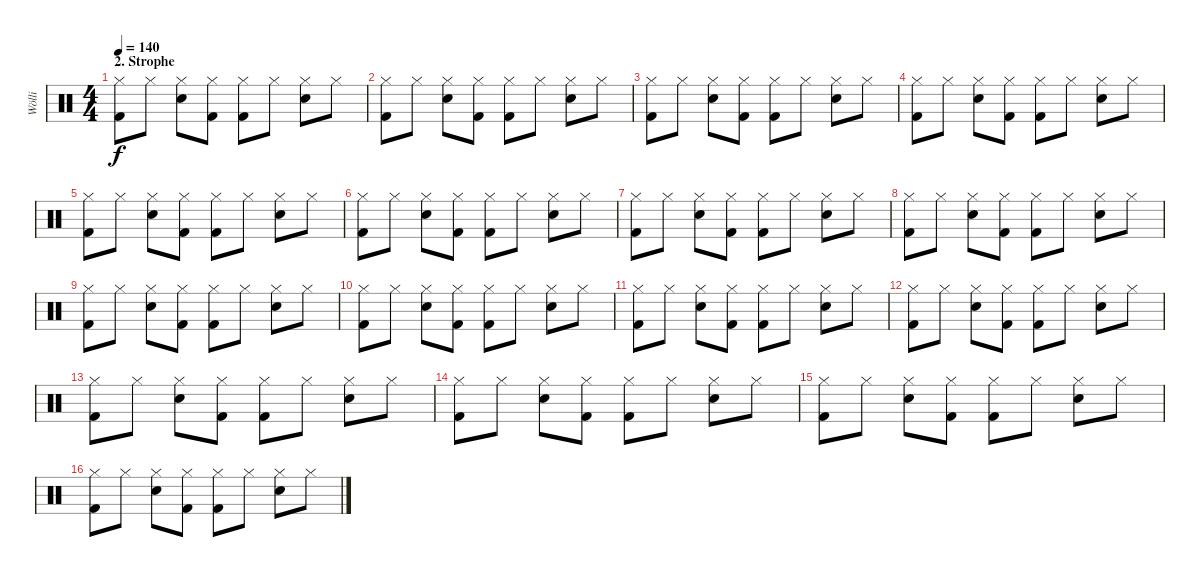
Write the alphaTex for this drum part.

\track ("Wölli" "Wölli") {instrument percussion}
\staff {score}
\articulation defaults
\ts (4 4)
\section ("" "2. Strophe")
\tempo 140
\clef neutral
\ks c
("Hi-Hat (closed)" "Kick (hit) 2").8{dy f} "Hi-Hat (closed)".8 ("Hi-Hat (closed)" "Snare (hit) 2").8 ("Hi-Hat (closed)" "Kick (hit) 2").8 ("Hi-Hat (closed)" "Kick (hit) 2").8 "Hi-Hat (closed)".8 ("Hi-Hat (closed)" "Snare (hit) 2").8 "Hi-Hat (closed)".8 |
("Hi-Hat (closed)" "Kick (hit) 2").8 "Hi-Hat (closed)".8 ("Hi-Hat (closed)" "Snare (hit) 2").8 ("Hi-Hat (closed)" "Kick (hit) 2").8 ("Hi-Hat (closed)" "Kick (hit) 2").8 "Hi-Hat (closed)".8 ("Hi-Hat (closed)" "Snare (hit) 2").8 "Hi-Hat (closed)".8 |
("Hi-Hat (closed)" "Kick (hit) 2").8 "Hi-Hat (closed)".8 ("Hi-Hat (closed)" "Snare (hit) 2").8 ("Hi-Hat (closed)" "Kick (hit) 2").8 ("Hi-Hat (closed)" "Kick (hit) 2").8 "Hi-Hat (closed)".8 ("Hi-Hat (closed)" "Snare (hit) 2").8 "Hi-Hat (closed)".8 |
("Hi-Hat (closed)" "Kick (hit) 2").8 "Hi-Hat (closed)".8 ("Hi-Hat (closed)" "Snare (hit) 2").8 ("Hi-Hat (closed)" "Kick (hit) 2").8 ("Hi-Hat (closed)" "Kick (hit) 2").8 "Hi-Hat (closed)".8 ("Hi-Hat (closed)" "Snare (hit) 2").8 "Hi-Hat (closed)".8 |
("Hi-Hat (closed)" "Kick (hit) 2").8 "Hi-Hat (closed)".8 ("Hi-Hat (closed)" "Snare (hit) 2").8 ("Hi-Hat (closed)" "Kick (hit) 2").8 ("Hi-Hat (closed)" "Kick (hit) 2").8 "Hi-Hat (closed)".8 ("Hi-Hat (closed)" "Snare (hit) 2").8 "Hi-Hat (closed)".8 |
("Hi-Hat (closed)" "Kick (hit) 2").8 "Hi-Hat (closed)".8 ("Hi-Hat (closed)" "Snare (hit) 2").8 ("Hi-Hat (closed)" "Kick (hit) 2").8 ("Hi-Hat (closed)" "Kick (hit) 2").8 "Hi-Hat (closed)".8 ("Hi-Hat (closed)" "Snare (hit) 2").8 "Hi-Hat (closed)".8 |
("Hi-Hat (closed)" "Kick (hit) 2").8 "Hi-Hat (closed)".8 ("Hi-Hat (closed)" "Snare (hit) 2").8 ("Hi-Hat (closed)" "Kick (hit) 2").8 ("Hi-Hat (closed)" "Kick (hit) 2").8 "Hi-Hat (closed)".8 ("Hi-Hat (closed)" "Snare (hit) 2").8 "Hi-Hat (closed)".8 |
("Hi-Hat (closed)" "Kick (hit) 2").8 "Hi-Hat (closed)".8 ("Hi-Hat (closed)" "Snare (hit) 2").8 ("Hi-Hat (closed)" "Kick (hit) 2").8 ("Hi-Hat (closed)" "Kick (hit) 2").8 "Hi-Hat (closed)".8 ("Hi-Hat (closed)" "Snare (hit) 2").8 "Hi-Hat (closed)".8 |
("Hi-Hat (closed)" "Kick (hit) 2").8 "Hi-Hat (closed)".8 ("Hi-Hat (closed)" "Snare (hit) 2").8 ("Hi-Hat (closed)" "Kick (hit) 2").8 ("Hi-Hat (closed)" "Kick (hit) 2").8 "Hi-Hat (closed)".8 ("Hi-Hat (closed)" "Snare (hit) 2").8 "Hi-Hat (closed)".8 |
("Hi-Hat (closed)" "Kick (hit) 2").8 "Hi-Hat (closed)".8 ("Hi-Hat (closed)" "Snare (hit) 2").8 ("Hi-Hat (closed)" "Kick (hit) 2").8 ("Hi-Hat (closed)" "Kick (hit) 2").8 "Hi-Hat (closed)".8 ("Hi-Hat (closed)" "Snare (hit) 2").8 "Hi-Hat (closed)".8 |
("Hi-Hat (closed)" "Kick (hit) 2").8 "Hi-Hat (closed)".8 ("Hi-Hat (closed)" "Snare (hit) 2").8 ("Hi-Hat (closed)" "Kick (hit) 2").8 ("Hi-Hat (closed)" "Kick (hit) 2").8 "Hi-Hat (closed)".8 ("Hi-Hat (closed)" "Snare (hit) 2").8 "Hi-Hat (closed)".8 |
("Hi-Hat (closed)" "Kick (hit) 2").8 "Hi-Hat (closed)".8 ("Hi-Hat (closed)" "Snare (hit) 2").8 ("Hi-Hat (closed)" "Kick (hit) 2").8 ("Hi-Hat (closed)" "Kick (hit) 2").8 "Hi-Hat (closed)".8 ("Hi-Hat (closed)" "Snare (hit) 2").8 "Hi-Hat (closed)".8 |
("Hi-Hat (closed)" "Kick (hit) 2").8 "Hi-Hat (closed)".8 ("Hi-Hat (closed)" "Snare (hit) 2").8 ("Hi-Hat (closed)" "Kick (hit) 2").8 ("Hi-Hat (closed)" "Kick (hit) 2").8 "Hi-Hat (closed)".8 ("Hi-Hat (closed)" "Snare (hit) 2").8 "Hi-Hat (closed)".8 |
("Hi-Hat (closed)" "Kick (hit) 2").8 "Hi-Hat (closed)".8 ("Hi-Hat (closed)" "Snare (hit) 2").8 ("Hi-Hat (closed)" "Kick (hit) 2").8 ("Hi-Hat (closed)" "Kick (hit) 2").8 "Hi-Hat (closed)".8 ("Hi-Hat (closed)" "Snare (hit) 2").8 "Hi-Hat (closed)".8 |
("Hi-Hat (closed)" "Kick (hit) 2").8 "Hi-Hat (closed)".8 ("Hi-Hat (closed)" "Snare (hit) 2").8 ("Hi-Hat (closed)" "Kick (hit) 2").8 ("Hi-Hat (closed)" "Kick (hit) 2").8 "Hi-Hat (closed)".8 ("Hi-Hat (closed)" "Snare (hit) 2").8 "Hi-Hat (closed)".8 |
("Hi-Hat (closed)" "Kick (hit) 2").8 "Hi-Hat (closed)".8 ("Hi-Hat (closed)" "Snare (hit) 2").8 ("Hi-Hat (closed)" "Kick (hit) 2").8 ("Hi-Hat (closed)" "Kick (hit) 2").8 "Hi-Hat (closed)".8 ("Hi-Hat (closed)" "Snare (hit) 2").8 "Hi-Hat (closed)".8
